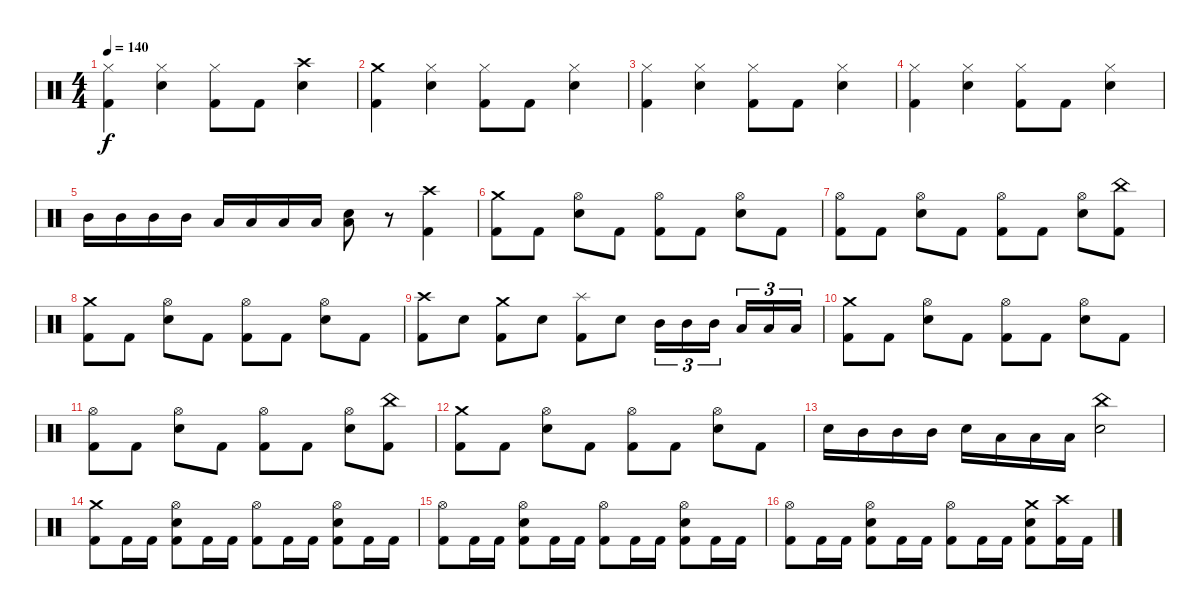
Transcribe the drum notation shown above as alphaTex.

\track "" {instrument percussion}
\staff {score}
\articulation defaults
\ts (4 4)
\tempo 140
\clef neutral
\ks c
("Hi-Hat (closed)" "Kick (hit) 2").4{dy f} ("Hi-Hat (closed)" "Electric Snare (hit)").4 ("Hi-Hat (closed)" "Kick (hit) 2").8 "Kick (hit) 2".8 ("Crash high (hit)" "Electric Snare (hit)").4 |
("Crash medium (hit)" "Kick (hit) 2").4 ("Hi-Hat (closed)" "Electric Snare (hit)").4 ("Hi-Hat (closed)" "Kick (hit) 2").8 "Kick (hit) 2".8 ("Hi-Hat (closed)" "Electric Snare (hit)").4 |
("Hi-Hat (closed)" "Kick (hit) 2").4 ("Hi-Hat (closed)" "Electric Snare (hit)").4 ("Hi-Hat (closed)" "Kick (hit) 2").8 "Kick (hit) 2".8 ("Hi-Hat (closed)" "Electric Snare (hit)").4 |
("Hi-Hat (closed)" "Kick (hit) 2").4 ("Hi-Hat (closed)" "Electric Snare (hit)").4 ("Hi-Hat (closed)" "Kick (hit) 2").8 "Kick (hit) 2".8 ("Hi-Hat (closed)" "Electric Snare (hit)").4 |
"Mid Tom (hit)".16 "Mid Tom (hit)".16 "Mid Tom (hit)".16 "Mid Tom (hit)".16 "Low Tom (hit)".16 "Low Tom (hit)".16 "Low Tom (hit)".16 "Low Tom (hit)".16 ("Electric Snare (hit)" "Low Floor Tom (hit)").8 r.8 ("Crash high (hit)" "Kick (hit) 2").4 |
("Crash medium (hit)" "Kick (hit) 2").8 "Kick (hit) 2".8 ("Hi-Hat (open)" "Electric Snare (hit)").8 "Kick (hit) 2".8 ("Hi-Hat (open)" "Kick (hit) 2").8 "Kick (hit) 2".8 ("Hi-Hat (open)" "Electric Snare (hit)").8 "Kick (hit) 2".8 |
("Hi-Hat (open)" "Kick (hit) 2").8 "Kick (hit) 2".8 ("Hi-Hat (open)" "Electric Snare (hit)").8 "Kick (hit) 2".8 ("Hi-Hat (open)" "Kick (hit) 2").8 "Kick (hit) 2".8 ("Hi-Hat (open)" "Electric Snare (hit)").8 ("China (hit)" "Kick (hit) 2").8 |
("Crash medium (hit)" "Kick (hit) 2").8 "Kick (hit) 2".8 ("Hi-Hat (open)" "Electric Snare (hit)").8 "Kick (hit) 2".8 ("Hi-Hat (open)" "Kick (hit) 2").8 "Kick (hit) 2".8 ("Hi-Hat (open)" "Electric Snare (hit)").8 "Kick (hit) 2".8 |
("Crash high (hit)" "Kick (hit) 2").8 "Electric Snare (hit)".8 ("Crash medium (hit)" "Kick (hit) 2").8 "Electric Snare (hit)".8 ("Splash (hit)" "Kick (hit) 2").8 "Electric Snare (hit)".8 "Mid Tom (hit)".16{tu (3 2)} "Mid Tom (hit)".16{tu (3 2)} "Mid Tom (hit)".16{tu (3 2) beam splitsecondary} "Low Tom (hit)".16{tu (3 2)} "Low Tom (hit)".16{tu (3 2)} "Low Tom (hit)".16{tu (3 2)} |
("Crash medium (hit)" "Kick (hit) 2").8 "Kick (hit) 2".8 ("Hi-Hat (open)" "Electric Snare (hit)").8 "Kick (hit) 2".8 ("Hi-Hat (open)" "Kick (hit) 2").8 "Kick (hit) 2".8 ("Hi-Hat (open)" "Electric Snare (hit)").8 "Kick (hit) 2".8 |
("Hi-Hat (open)" "Kick (hit) 2").8 "Kick (hit) 2".8 ("Hi-Hat (open)" "Electric Snare (hit)").8 "Kick (hit) 2".8 ("Hi-Hat (open)" "Kick (hit) 2").8 "Kick (hit) 2".8 ("Hi-Hat (open)" "Electric Snare (hit)").8 ("China (hit)" "Kick (hit) 2").8 |
("Crash medium (hit)" "Kick (hit) 2").8 "Kick (hit) 2".8 ("Hi-Hat (open)" "Electric Snare (hit)").8 "Kick (hit) 2".8 ("Hi-Hat (open)" "Kick (hit) 2").8 "Kick (hit) 2".8 ("Hi-Hat (open)" "Electric Snare (hit)").8 "Kick (hit) 2".8 |
"Electric Snare (hit)".16 "Mid Tom (hit)".16 "Mid Tom (hit)".16 "Mid Tom (hit)".16 "Electric Snare (hit)".16 "Low Tom (hit)".16 "Low Tom (hit)".16 "Low Tom (hit)".16 ("China (hit)" "Electric Snare (hit)").2 |
("Crash medium (hit)" "Kick (hit) 2").8 "Kick (hit) 2".16 "Kick (hit) 2".16 ("Hi-Hat (open)" "Electric Snare (hit)" "Kick (hit) 2").8 "Kick (hit) 2".16 "Kick (hit) 2".16 ("Hi-Hat (open)" "Kick (hit) 2").8 "Kick (hit) 2".16 "Kick (hit) 2".16 ("Hi-Hat (open)" "Electric Snare (hit)" "Kick (hit) 2").8 "Kick (hit) 2".16 "Kick (hit) 2".16 |
("Hi-Hat (open)" "Kick (hit) 2").8 "Kick (hit) 2".16 "Kick (hit) 2".16 ("Hi-Hat (open)" "Electric Snare (hit)" "Kick (hit) 2").8 "Kick (hit) 2".16 "Kick (hit) 2".16 ("Hi-Hat (open)" "Kick (hit) 2").8 "Kick (hit) 2".16 "Kick (hit) 2".16 ("Hi-Hat (open)" "Electric Snare (hit)" "Kick (hit) 2").8 "Kick (hit) 2".16 "Kick (hit) 2".16 |
("Hi-Hat (open)" "Kick (hit) 2").8 "Kick (hit) 2".16 "Kick (hit) 2".16 ("Hi-Hat (open)" "Electric Snare (hit)" "Kick (hit) 2").8 "Kick (hit) 2".16 "Kick (hit) 2".16 ("Hi-Hat (open)" "Kick (hit) 2").8 "Kick (hit) 2".16 "Kick (hit) 2".16 ("Crash medium (hit)" "Electric Snare (hit)" "Kick (hit) 2").8 ("Crash high (hit)" "Kick (hit) 2").16 "Kick (hit) 2".16
